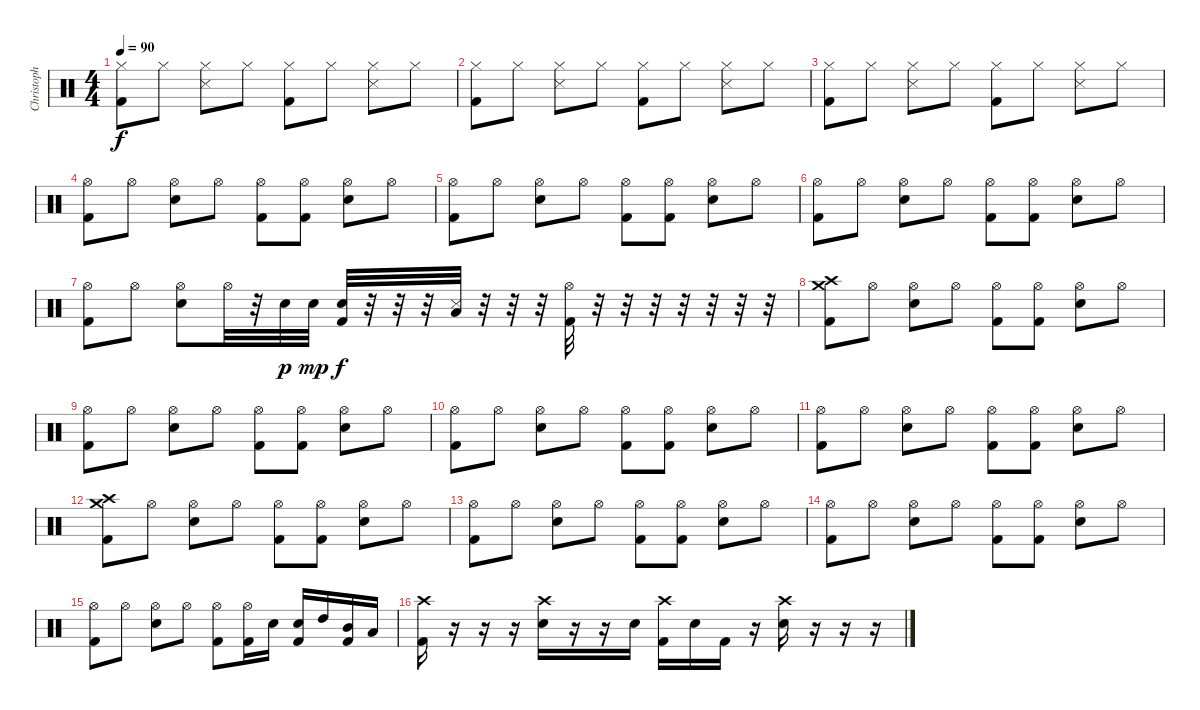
\track ("Christoph Schneider" "Christoph ") {instrument percussion}
\staff {score}
\articulation defaults
\ts (4 4)
\tempo 90
\clef neutral
\ks c
("Kick (hit) 2" "Hi-Hat (closed)").8{dy f} "Hi-Hat (closed)".8 ("Snare (side stick) 3" "Hi-Hat (closed)").8 "Hi-Hat (closed)".8 ("Kick (hit) 2" "Hi-Hat (closed)").8 "Hi-Hat (closed)".8 ("Snare (side stick) 3" "Hi-Hat (closed)").8 "Hi-Hat (closed)".8 |
("Kick (hit) 2" "Hi-Hat (closed)").8 "Hi-Hat (closed)".8 ("Snare (side stick) 3" "Hi-Hat (closed)").8 "Hi-Hat (closed)".8 ("Kick (hit) 2" "Hi-Hat (closed)").8 "Hi-Hat (closed)".8 ("Snare (side stick) 3" "Hi-Hat (closed)").8 "Hi-Hat (closed)".8 |
("Kick (hit) 2" "Hi-Hat (closed)").8 "Hi-Hat (closed)".8 ("Snare (side stick) 3" "Hi-Hat (closed)").8 "Hi-Hat (closed)".8 ("Kick (hit) 2" "Hi-Hat (closed)").8 "Hi-Hat (closed)".8 ("Snare (side stick) 3" "Hi-Hat (closed)").8 "Hi-Hat (closed)".8 |
("Kick (hit) 2" "Hi-Hat (open)").8 "Hi-Hat (open)".8 ("Snare (hit) 2" "Hi-Hat (open)").8 "Hi-Hat (open)".8 ("Kick (hit) 2" "Hi-Hat (open)").8 ("Kick (hit) 2" "Hi-Hat (open)").8 ("Snare (hit) 2" "Hi-Hat (open)").8 "Hi-Hat (open)".8 |
("Kick (hit) 2" "Hi-Hat (open)").8 "Hi-Hat (open)".8 ("Snare (hit) 2" "Hi-Hat (open)").8 "Hi-Hat (open)".8 ("Kick (hit) 2" "Hi-Hat (open)").8 ("Kick (hit) 2" "Hi-Hat (open)").8 ("Snare (hit) 2" "Hi-Hat (open)").8 "Hi-Hat (open)".8 |
("Kick (hit) 2" "Hi-Hat (open)").8 "Hi-Hat (open)".8 ("Snare (hit) 2" "Hi-Hat (open)").8 "Hi-Hat (open)".8 ("Kick (hit) 2" "Hi-Hat (open)").8 ("Kick (hit) 2" "Hi-Hat (open)").8 ("Snare (hit) 2" "Hi-Hat (open)").8 "Hi-Hat (open)".8 |
("Hi-Hat (open)" "Kick (hit) 2").8 "Hi-Hat (open)".8 ("Hi-Hat (open)" "Snare (hit) 2").8 "Hi-Hat (open)".32 r.32 "Snare (hit) 2".32{dy p} "Snare (hit) 2".32{dy mp} ("Snare (hit) 2" "Kick (hit) 2").32{dy f} r.32 r.32 r.32 ("Snare (side stick) 3" "Low Tom (hit)").32 r.32 r.32 r.32 ("Kick (hit) 2" "Hi-Hat (open)").32 r.32 r.32 r.32 r.32 r.32 r.32 r.32 |
("Crash medium (hit)" "Kick (hit) 2" "Crash high (hit)").8 "Hi-Hat (open)".8 ("Snare (hit) 2" "Hi-Hat (open)").8 "Hi-Hat (open)".8 ("Kick (hit) 2" "Hi-Hat (open)").8 ("Kick (hit) 2" "Hi-Hat (open)").8 ("Snare (hit) 2" "Hi-Hat (open)").8 "Hi-Hat (open)".8 |
("Kick (hit) 2" "Hi-Hat (open)").8 "Hi-Hat (open)".8 ("Snare (hit) 2" "Hi-Hat (open)").8 "Hi-Hat (open)".8 ("Kick (hit) 2" "Hi-Hat (open)").8 ("Kick (hit) 2" "Hi-Hat (open)").8 ("Snare (hit) 2" "Hi-Hat (open)").8 "Hi-Hat (open)".8 |
("Kick (hit) 2" "Hi-Hat (open)").8 "Hi-Hat (open)".8 ("Snare (hit) 2" "Hi-Hat (open)").8 "Hi-Hat (open)".8 ("Kick (hit) 2" "Hi-Hat (open)").8 ("Kick (hit) 2" "Hi-Hat (open)").8 ("Snare (hit) 2" "Hi-Hat (open)").8 "Hi-Hat (open)".8 |
("Kick (hit) 2" "Hi-Hat (open)").8 "Hi-Hat (open)".8 ("Snare (hit) 2" "Hi-Hat (open)").8 "Hi-Hat (open)".8 ("Kick (hit) 2" "Hi-Hat (open)").8 ("Kick (hit) 2" "Hi-Hat (open)").8 ("Snare (hit) 2" "Hi-Hat (open)").8 "Hi-Hat (open)".8 |
("Crash medium (hit)" "Kick (hit) 2" "Crash high (hit)").8 "Hi-Hat (open)".8 ("Snare (hit) 2" "Hi-Hat (open)").8 "Hi-Hat (open)".8 ("Kick (hit) 2" "Hi-Hat (open)").8 ("Kick (hit) 2" "Hi-Hat (open)").8 ("Snare (hit) 2" "Hi-Hat (open)").8 "Hi-Hat (open)".8 |
("Kick (hit) 2" "Hi-Hat (open)").8 "Hi-Hat (open)".8 ("Snare (hit) 2" "Hi-Hat (open)").8 "Hi-Hat (open)".8 ("Kick (hit) 2" "Hi-Hat (open)").8 ("Kick (hit) 2" "Hi-Hat (open)").8 ("Snare (hit) 2" "Hi-Hat (open)").8 "Hi-Hat (open)".8 |
("Kick (hit) 2" "Hi-Hat (open)").8 "Hi-Hat (open)".8 ("Snare (hit) 2" "Hi-Hat (open)").8 "Hi-Hat (open)".8 ("Kick (hit) 2" "Hi-Hat (open)").8 ("Kick (hit) 2" "Hi-Hat (open)").8 ("Snare (hit) 2" "Hi-Hat (open)").8 "Hi-Hat (open)".8 |
("Kick (hit) 2" "Hi-Hat (open)").8 "Hi-Hat (open)".8 ("Snare (hit) 2" "Hi-Hat (open)").8 "Hi-Hat (open)".8 ("Kick (hit) 2" "Hi-Hat (open)").8 ("Kick (hit) 2" "Hi-Hat (open)").16 "Snare (hit) 2".16 ("Kick (hit) 2" "Snare (hit) 2").16 "High Tom (hit)".16 ("Kick (hit) 2" "Mid Tom (hit)").16 "Low Tom (hit)".16 |
("Crash high (hit)" "Kick (hit) 2").16 r.16 r.16 r.16 ("Crash high (hit)" "Snare (hit) 2").16 r.16 r.16 "Snare (hit) 2".16 ("Crash high (hit)" "Kick (hit) 2").16 "Snare (hit) 2".16 "Kick (hit) 2".16 r.16 ("Crash high (hit)" "Snare (hit) 2").16 r.16 r.16 r.16
